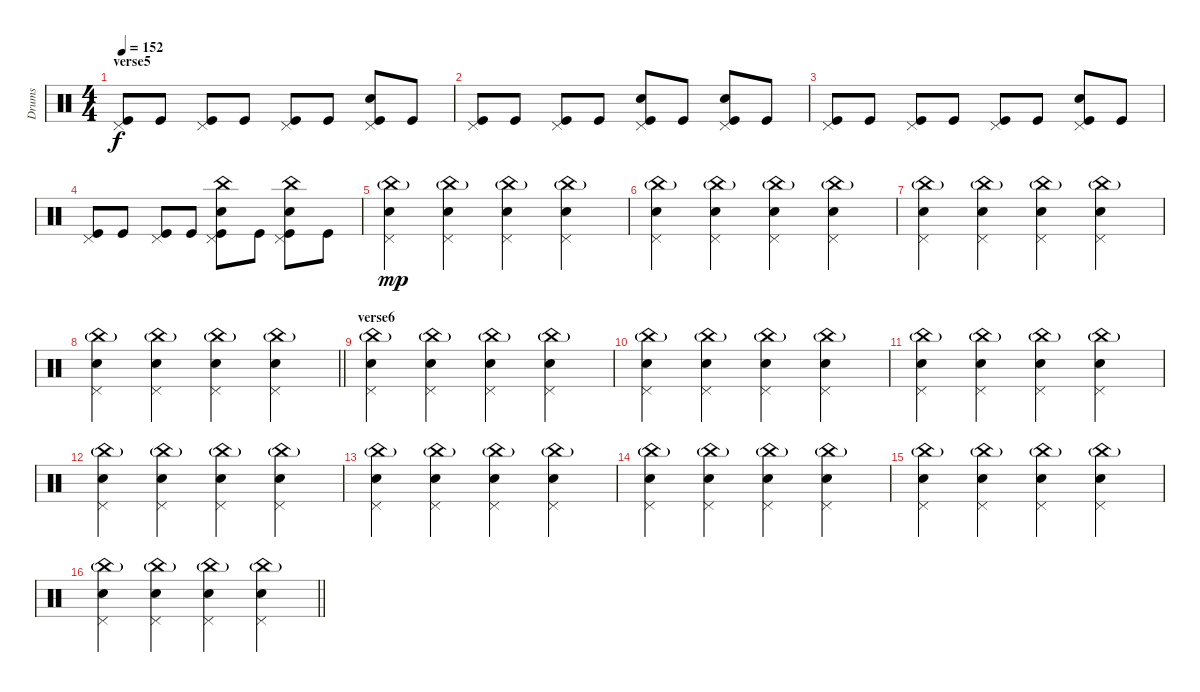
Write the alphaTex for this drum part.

\track ("Drums" "Drums") {instrument percussion}
\staff {score}
\articulation defaults
\ts (4 4)
\section ("" "verse5")
\tempo 152
\clef neutral
\ks c
("Kick (hit)" "Pedal Hi-Hat (hit)").8{dy f} "Kick (hit)".8 ("Kick (hit)" "Pedal Hi-Hat (hit)").8 "Kick (hit)".8 ("Kick (hit)" "Pedal Hi-Hat (hit)").8 "Kick (hit)".8 ("Kick (hit)" "Pedal Hi-Hat (hit)" "Electric Snare (hit)").8 "Kick (hit)".8 |
("Kick (hit)" "Pedal Hi-Hat (hit)").8 "Kick (hit)".8 ("Kick (hit)" "Pedal Hi-Hat (hit)").8 "Kick (hit)".8 ("Kick (hit)" "Pedal Hi-Hat (hit)" "Electric Snare (hit)").8 "Kick (hit)".8 ("Kick (hit)" "Pedal Hi-Hat (hit)" "Electric Snare (hit)").8 "Kick (hit)".8 |
("Kick (hit)" "Pedal Hi-Hat (hit)").8 "Kick (hit)".8 ("Kick (hit)" "Pedal Hi-Hat (hit)").8 "Kick (hit)".8 ("Kick (hit)" "Pedal Hi-Hat (hit)").8 "Kick (hit)".8 ("Kick (hit)" "Pedal Hi-Hat (hit)" "Electric Snare (hit)").8 "Kick (hit)".8 |
("Kick (hit)" "Pedal Hi-Hat (hit)").8 "Kick (hit)".8 ("Kick (hit)" "Pedal Hi-Hat (hit)").8 "Kick (hit)".8 ("Kick (hit)" "Pedal Hi-Hat (hit)" "Electric Snare (hit)" "China (hit)").8 "Kick (hit)".8 ("Kick (hit)" "Pedal Hi-Hat (hit)" "Electric Snare (hit)" "China (hit)").8 "Kick (hit)".8 |
("China (hit)"{g} "Electric Snare (hit)" "Pedal Hi-Hat (hit)").4{dy mp} ("China (hit)"{g} "Electric Snare (hit)" "Pedal Hi-Hat (hit)").4 ("China (hit)"{g} "Electric Snare (hit)" "Pedal Hi-Hat (hit)").4 ("China (hit)"{g} "Electric Snare (hit)" "Pedal Hi-Hat (hit)").4 |
("China (hit)"{g} "Electric Snare (hit)" "Pedal Hi-Hat (hit)").4 ("China (hit)"{g} "Electric Snare (hit)" "Pedal Hi-Hat (hit)").4 ("China (hit)"{g} "Electric Snare (hit)" "Pedal Hi-Hat (hit)").4 ("China (hit)"{g} "Electric Snare (hit)" "Pedal Hi-Hat (hit)").4 |
("China (hit)"{g} "Electric Snare (hit)" "Pedal Hi-Hat (hit)").4 ("China (hit)"{g} "Electric Snare (hit)" "Pedal Hi-Hat (hit)").4 ("China (hit)"{g} "Electric Snare (hit)" "Pedal Hi-Hat (hit)").4 ("China (hit)"{g} "Electric Snare (hit)" "Pedal Hi-Hat (hit)").4 |
\barLineRight lightlight
("China (hit)"{g} "Electric Snare (hit)" "Pedal Hi-Hat (hit)").4 ("China (hit)"{g} "Electric Snare (hit)" "Pedal Hi-Hat (hit)").4 ("China (hit)"{g} "Electric Snare (hit)" "Pedal Hi-Hat (hit)").4 ("China (hit)"{g} "Electric Snare (hit)" "Pedal Hi-Hat (hit)").4 |
\section ("" "verse6")
("China (hit)"{g} "Electric Snare (hit)" "Pedal Hi-Hat (hit)").4 ("China (hit)"{g} "Electric Snare (hit)" "Pedal Hi-Hat (hit)").4 ("China (hit)"{g} "Electric Snare (hit)" "Pedal Hi-Hat (hit)").4 ("China (hit)"{g} "Electric Snare (hit)" "Pedal Hi-Hat (hit)").4 |
("China (hit)"{g} "Electric Snare (hit)" "Pedal Hi-Hat (hit)").4 ("China (hit)"{g} "Electric Snare (hit)" "Pedal Hi-Hat (hit)").4 ("China (hit)"{g} "Electric Snare (hit)" "Pedal Hi-Hat (hit)").4 ("China (hit)"{g} "Electric Snare (hit)" "Pedal Hi-Hat (hit)").4 |
("China (hit)"{g} "Electric Snare (hit)" "Pedal Hi-Hat (hit)").4 ("China (hit)"{g} "Electric Snare (hit)" "Pedal Hi-Hat (hit)").4 ("China (hit)"{g} "Electric Snare (hit)" "Pedal Hi-Hat (hit)").4 ("China (hit)"{g} "Electric Snare (hit)" "Pedal Hi-Hat (hit)").4 |
("China (hit)"{g} "Electric Snare (hit)" "Pedal Hi-Hat (hit)").4 ("China (hit)"{g} "Electric Snare (hit)" "Pedal Hi-Hat (hit)").4 ("China (hit)"{g} "Electric Snare (hit)" "Pedal Hi-Hat (hit)").4 ("China (hit)"{g} "Electric Snare (hit)" "Pedal Hi-Hat (hit)").4 |
("China (hit)"{g} "Electric Snare (hit)" "Pedal Hi-Hat (hit)").4 ("China (hit)"{g} "Electric Snare (hit)" "Pedal Hi-Hat (hit)").4 ("China (hit)"{g} "Electric Snare (hit)" "Pedal Hi-Hat (hit)").4 ("China (hit)"{g} "Electric Snare (hit)" "Pedal Hi-Hat (hit)").4 |
("China (hit)"{g} "Electric Snare (hit)" "Pedal Hi-Hat (hit)").4 ("China (hit)"{g} "Electric Snare (hit)" "Pedal Hi-Hat (hit)").4 ("China (hit)"{g} "Electric Snare (hit)" "Pedal Hi-Hat (hit)").4 ("China (hit)"{g} "Electric Snare (hit)" "Pedal Hi-Hat (hit)").4 |
("China (hit)"{g} "Electric Snare (hit)" "Pedal Hi-Hat (hit)").4 ("China (hit)"{g} "Electric Snare (hit)" "Pedal Hi-Hat (hit)").4 ("China (hit)"{g} "Electric Snare (hit)" "Pedal Hi-Hat (hit)").4 ("China (hit)"{g} "Electric Snare (hit)" "Pedal Hi-Hat (hit)").4 |
\barLineRight lightlight
("China (hit)"{g} "Electric Snare (hit)" "Pedal Hi-Hat (hit)").4 ("China (hit)"{g} "Electric Snare (hit)" "Pedal Hi-Hat (hit)").4 ("China (hit)"{g} "Electric Snare (hit)" "Pedal Hi-Hat (hit)").4 ("China (hit)"{g} "Electric Snare (hit)" "Pedal Hi-Hat (hit)").4
